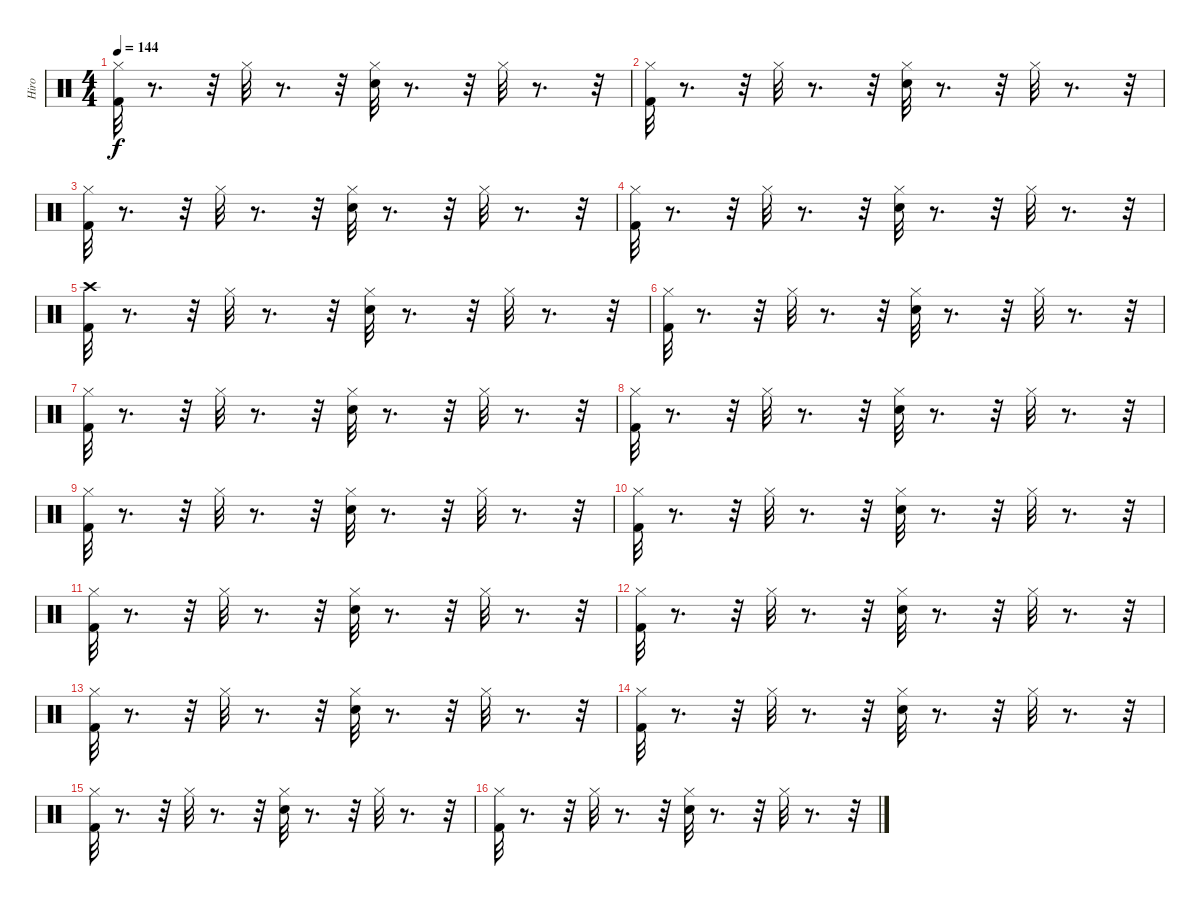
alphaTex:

\track ("Hiro" "Hiro") {instrument percussion}
\staff {score}
\articulation defaults
\ts (4 4)
\tempo 144
\clef neutral
\ks c
("Hi-Hat (closed)" "Kick (hit) 2").32{dy f} r.8{d} r.32 "Hi-Hat (closed)".32 r.8{d} r.32 ("Snare (hit) 2" "Hi-Hat (closed)").32 r.8{d} r.32 "Hi-Hat (closed)".32 r.8{d} r.32 |
("Hi-Hat (closed)" "Kick (hit) 2").32 r.8{d} r.32 "Hi-Hat (closed)".32 r.8{d} r.32 ("Hi-Hat (closed)" "Snare (hit) 2").32 r.8{d} r.32 "Hi-Hat (closed)".32 r.8{d} r.32 |
("Hi-Hat (closed)" "Kick (hit) 2").32 r.8{d} r.32 "Hi-Hat (closed)".32 r.8{d} r.32 ("Snare (hit) 2" "Hi-Hat (closed)").32 r.8{d} r.32 "Hi-Hat (closed)".32 r.8{d} r.32 |
("Kick (hit) 2" "Hi-Hat (closed)").32 r.8{d} r.32 "Hi-Hat (closed)".32 r.8{d} r.32 ("Snare (hit) 2" "Hi-Hat (closed)").32 r.8{d} r.32 "Hi-Hat (closed)".32 r.8{d} r.32 |
("Kick (hit) 2" "Crash high (hit)").32 r.8{d} r.32 "Hi-Hat (closed)".32 r.8{d} r.32 ("Snare (hit) 2" "Hi-Hat (closed)").32 r.8{d} r.32 "Hi-Hat (closed)".32 r.8{d} r.32 |
("Hi-Hat (closed)" "Kick (hit) 2").32 r.8{d} r.32 "Hi-Hat (closed)".32 r.8{d} r.32 ("Hi-Hat (closed)" "Snare (hit) 2").32 r.8{d} r.32 "Hi-Hat (closed)".32 r.8{d} r.32 |
("Hi-Hat (closed)" "Kick (hit) 2").32 r.8{d} r.32 "Hi-Hat (closed)".32 r.8{d} r.32 ("Hi-Hat (closed)" "Snare (hit) 2").32 r.8{d} r.32 "Hi-Hat (closed)".32 r.8{d} r.32 |
("Hi-Hat (closed)" "Kick (hit) 2").32 r.8{d} r.32 "Hi-Hat (closed)".32 r.8{d} r.32 ("Hi-Hat (closed)" "Snare (hit) 2").32 r.8{d} r.32 "Hi-Hat (closed)".32 r.8{d} r.32 |
("Hi-Hat (closed)" "Kick (hit) 2").32 r.8{d} r.32 "Hi-Hat (closed)".32 r.8{d} r.32 ("Hi-Hat (closed)" "Snare (hit) 2").32 r.8{d} r.32 "Hi-Hat (closed)".32 r.8{d} r.32 |
("Hi-Hat (closed)" "Kick (hit) 2").32 r.8{d} r.32 "Hi-Hat (closed)".32 r.8{d} r.32 ("Hi-Hat (closed)" "Snare (hit) 2").32 r.8{d} r.32 "Hi-Hat (closed)".32 r.8{d} r.32 |
("Hi-Hat (closed)" "Kick (hit) 2").32 r.8{d} r.32 "Hi-Hat (closed)".32 r.8{d} r.32 ("Hi-Hat (closed)" "Snare (hit) 2").32 r.8{d} r.32 "Hi-Hat (closed)".32 r.8{d} r.32 |
("Hi-Hat (closed)" "Kick (hit) 2").32 r.8{d} r.32 "Hi-Hat (closed)".32 r.8{d} r.32 ("Hi-Hat (closed)" "Snare (hit) 2").32 r.8{d} r.32 "Hi-Hat (closed)".32 r.8{d} r.32 |
("Hi-Hat (closed)" "Kick (hit) 2").32 r.8{d} r.32 "Hi-Hat (closed)".32 r.8{d} r.32 ("Hi-Hat (closed)" "Snare (hit) 2").32 r.8{d} r.32 "Hi-Hat (closed)".32 r.8{d} r.32 |
("Kick (hit) 2" "Hi-Hat (closed)").32 r.8{d} r.32 "Hi-Hat (closed)".32 r.8{d} r.32 ("Snare (hit) 2" "Hi-Hat (closed)").32 r.8{d} r.32 "Hi-Hat (closed)".32 r.8{d} r.32 |
("Hi-Hat (closed)" "Kick (hit) 2").32 r.8{d} r.32 "Hi-Hat (closed)".32 r.8{d} r.32 ("Hi-Hat (closed)" "Snare (hit) 2").32 r.8{d} r.32 "Hi-Hat (closed)".32 r.8{d} r.32 |
("Hi-Hat (closed)" "Kick (hit) 2").32 r.8{d} r.32 "Hi-Hat (closed)".32 r.8{d} r.32 ("Hi-Hat (closed)" "Snare (hit) 2").32 r.8{d} r.32 "Hi-Hat (closed)".32 r.8{d} r.32
